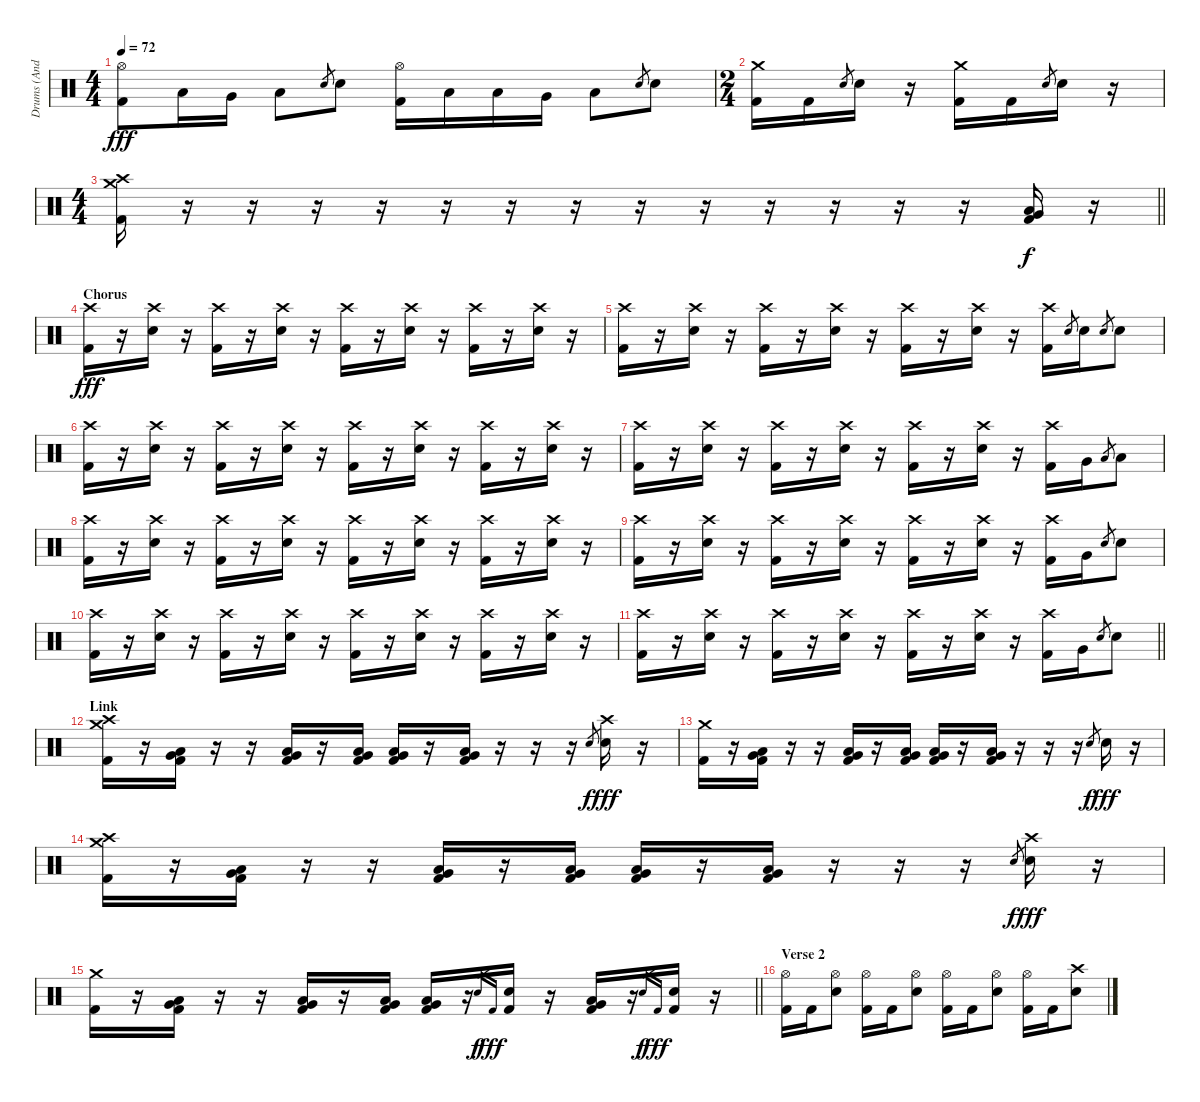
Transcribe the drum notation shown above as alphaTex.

\track ("Drums (Andy)" "Drums (And") {instrument percussion}
\staff {score}
\articulation defaults
\ts (4 4)
\tempo 72
\clef neutral
\ks c
("Hi-Hat (open)" "Kick (hit) 2").8{dy fff} "Low Floor Tom (hit)".16 "Very Low Tom (hit)".16 "Low Floor Tom (hit)".8 "Snare (hit) 2".8{gr} "Snare (hit) 2".8 ("Hi-Hat (open)" "Kick (hit) 2").16 "Low Floor Tom (hit)".16 "Low Floor Tom (hit)".16 "Very Low Tom (hit)".16 "Low Floor Tom (hit)".8 "Snare (hit) 2".8{gr} "Snare (hit) 2".8 |
\ts (2 4)
("Crash medium (hit)" "Kick (hit) 2").16 "Kick (hit) 2".16 "Snare (hit) 2".8{gr} "Snare (hit) 2".16 r.16 ("Crash medium (hit)" "Kick (hit) 2").16 "Kick (hit) 2".16 "Snare (hit) 2".8{gr} "Snare (hit) 2".16 r.16 |
\ts (4 4)
\barLineRight lightlight
("Crash medium (hit)" "Crash high (hit)" "Kick (hit) 2").16 r.16 r.16 r.16 r.16 r.16 r.16 r.16 r.16 r.16 r.16 r.16 r.16 r.16 ("Low Floor Tom (hit)" "Very Low Tom (hit)" "Kick (hit) 2").16{dy f} r.16 |
\section ("" "Chorus")
("Crash high (hit)" "Kick (hit) 2").16{dy fff} r.16 ("Crash high (hit)" "Snare (hit) 2").16 r.16 ("Crash high (hit)" "Kick (hit) 2").16 r.16 ("Crash high (hit)" "Snare (hit) 2").16 r.16 ("Crash high (hit)" "Kick (hit) 2").16 r.16 ("Crash high (hit)" "Snare (hit) 2").16 r.16 ("Crash high (hit)" "Kick (hit) 2").16 r.16 ("Crash high (hit)" "Snare (hit) 2").16 r.16 |
("Crash high (hit)" "Kick (hit) 2").16 r.16 ("Crash high (hit)" "Snare (hit) 2").16 r.16 ("Crash high (hit)" "Kick (hit) 2").16 r.16 ("Crash high (hit)" "Snare (hit) 2").16 r.16 ("Crash high (hit)" "Kick (hit) 2").16 r.16 ("Crash high (hit)" "Snare (hit) 2").16 r.16 ("Crash high (hit)" "Kick (hit) 2").16 "Snare (hit) 2".8{gr} "Snare (hit) 2".16 "Snare (hit) 2".8{gr} "Snare (hit) 2".8 |
("Crash high (hit)" "Kick (hit) 2").16 r.16 ("Crash high (hit)" "Snare (hit) 2").16 r.16 ("Crash high (hit)" "Kick (hit) 2").16 r.16 ("Crash high (hit)" "Snare (hit) 2").16 r.16 ("Crash high (hit)" "Kick (hit) 2").16 r.16 ("Crash high (hit)" "Snare (hit) 2").16 r.16 ("Crash high (hit)" "Kick (hit) 2").16 r.16 ("Crash high (hit)" "Snare (hit) 2").16 r.16 |
("Crash high (hit)" "Kick (hit) 2").16 r.16 ("Crash high (hit)" "Snare (hit) 2").16 r.16 ("Crash high (hit)" "Kick (hit) 2").16 r.16 ("Crash high (hit)" "Snare (hit) 2").16 r.16 ("Crash high (hit)" "Kick (hit) 2").16 r.16 ("Crash high (hit)" "Snare (hit) 2").16 r.16 ("Crash high (hit)" "Kick (hit) 2").16 "Very Low Tom (hit)".16 "Low Floor Tom (hit)".8{gr} "Low Floor Tom (hit)".8 |
("Crash high (hit)" "Kick (hit) 2").16 r.16 ("Crash high (hit)" "Snare (hit) 2").16 r.16 ("Crash high (hit)" "Kick (hit) 2").16 r.16 ("Crash high (hit)" "Snare (hit) 2").16 r.16 ("Crash high (hit)" "Kick (hit) 2").16 r.16 ("Crash high (hit)" "Snare (hit) 2").16 r.16 ("Crash high (hit)" "Kick (hit) 2").16 r.16 ("Crash high (hit)" "Snare (hit) 2").16 r.16 |
("Crash high (hit)" "Kick (hit) 2").16 r.16 ("Crash high (hit)" "Snare (hit) 2").16 r.16 ("Crash high (hit)" "Kick (hit) 2").16 r.16 ("Crash high (hit)" "Snare (hit) 2").16 r.16 ("Crash high (hit)" "Kick (hit) 2").16 r.16 ("Crash high (hit)" "Snare (hit) 2").16 r.16 ("Crash high (hit)" "Kick (hit) 2").16 "Very Low Tom (hit)".16 "Snare (hit) 2".8{gr} "Snare (hit) 2".8 |
("Crash high (hit)" "Kick (hit) 2").16 r.16 ("Crash high (hit)" "Snare (hit) 2").16 r.16 ("Crash high (hit)" "Kick (hit) 2").16 r.16 ("Crash high (hit)" "Snare (hit) 2").16 r.16 ("Crash high (hit)" "Kick (hit) 2").16 r.16 ("Crash high (hit)" "Snare (hit) 2").16 r.16 ("Crash high (hit)" "Kick (hit) 2").16 r.16 ("Crash high (hit)" "Snare (hit) 2").16 r.16 |
\barLineRight lightlight
("Crash high (hit)" "Kick (hit) 2").16 r.16 ("Crash high (hit)" "Snare (hit) 2").16 r.16 ("Crash high (hit)" "Kick (hit) 2").16 r.16 ("Crash high (hit)" "Snare (hit) 2").16 r.16 ("Crash high (hit)" "Kick (hit) 2").16 r.16 ("Crash high (hit)" "Snare (hit) 2").16 r.16 ("Crash high (hit)" "Kick (hit) 2").16 "Very Low Tom (hit)".16 "Snare (hit) 2".8{gr} "Snare (hit) 2".8 |
\section ("" "Link")
("Crash medium (hit)" "Crash high (hit)" "Kick (hit) 2").16 r.16 ("Low Floor Tom (hit)" "Very Low Tom (hit)" "Kick (hit) 2").16 r.16 r.16 ("Low Floor Tom (hit)" "Very Low Tom (hit)" "Kick (hit) 2").16 r.16 ("Low Floor Tom (hit)" "Very Low Tom (hit)" "Kick (hit) 2").16 ("Low Floor Tom (hit)" "Very Low Tom (hit)" "Kick (hit) 2").16 r.16 ("Low Floor Tom (hit)" "Very Low Tom (hit)" "Kick (hit) 2").16 r.16 r.16 r.16 "Snare (hit) 2".8{gr dy f} ("Crash high (hit)" "Snare (hit) 2").16{dy fff} r.16 |
("Crash medium (hit)" "Kick (hit) 2").16 r.16 ("Low Floor Tom (hit)" "Very Low Tom (hit)" "Kick (hit) 2").16 r.16 r.16 ("Low Floor Tom (hit)" "Very Low Tom (hit)" "Kick (hit) 2").16 r.16 ("Low Floor Tom (hit)" "Very Low Tom (hit)" "Kick (hit) 2").16 ("Low Floor Tom (hit)" "Very Low Tom (hit)" "Kick (hit) 2").16 r.16 ("Low Floor Tom (hit)" "Very Low Tom (hit)" "Kick (hit) 2").16 r.16 r.16 r.16 "Snare (hit) 2".8{gr dy f} "Snare (hit) 2".16{dy fff} r.16 |
("Crash medium (hit)" "Crash high (hit)" "Kick (hit) 2").16 r.16 ("Low Floor Tom (hit)" "Very Low Tom (hit)" "Kick (hit) 2").16 r.16 r.16 ("Low Floor Tom (hit)" "Very Low Tom (hit)" "Kick (hit) 2").16 r.16 ("Low Floor Tom (hit)" "Very Low Tom (hit)" "Kick (hit) 2").16 ("Low Floor Tom (hit)" "Very Low Tom (hit)" "Kick (hit) 2").16 r.16 ("Low Floor Tom (hit)" "Very Low Tom (hit)" "Kick (hit) 2").16 r.16 r.16 r.16 "Snare (hit) 2".8{gr dy f} ("Crash high (hit)" "Snare (hit) 2").16{dy fff} r.16 |
\barLineRight lightlight
("Crash medium (hit)" "Kick (hit) 2").16 r.16 ("Low Floor Tom (hit)" "Very Low Tom (hit)" "Kick (hit) 2").16 r.16 r.16 ("Low Floor Tom (hit)" "Very Low Tom (hit)" "Kick (hit) 2").16 r.16 ("Low Floor Tom (hit)" "Very Low Tom (hit)" "Kick (hit) 2").16 ("Low Floor Tom (hit)" "Very Low Tom (hit)" "Kick (hit) 2").16 r.16 "Snare (hit) 2".16{gr dy f} "Kick (hit) 2".16{gr dy fff} ("Snare (hit) 2" "Kick (hit) 2").16 r.16 ("Low Floor Tom (hit)" "Very Low Tom (hit)" "Kick (hit) 2").16 r.16 "Snare (hit) 2".16{gr dy f} "Kick (hit) 2".16{gr dy fff} ("Snare (hit) 2" "Kick (hit) 2").16 r.16 |
\section ("" "Verse 2")
("Hi-Hat (open)" "Kick (hit) 2").16 "Kick (hit) 2".16 ("Hi-Hat (open)" "Snare (hit) 2").8 ("Hi-Hat (open)" "Kick (hit) 2").16 "Kick (hit) 2".16 ("Hi-Hat (open)" "Snare (hit) 2").8 ("Hi-Hat (open)" "Kick (hit) 2").16 "Kick (hit) 2".16 ("Hi-Hat (open)" "Snare (hit) 2").8 ("Hi-Hat (open)" "Kick (hit) 2").16 "Kick (hit) 2".16 ("Crash high (hit)" "Snare (hit) 2").8
